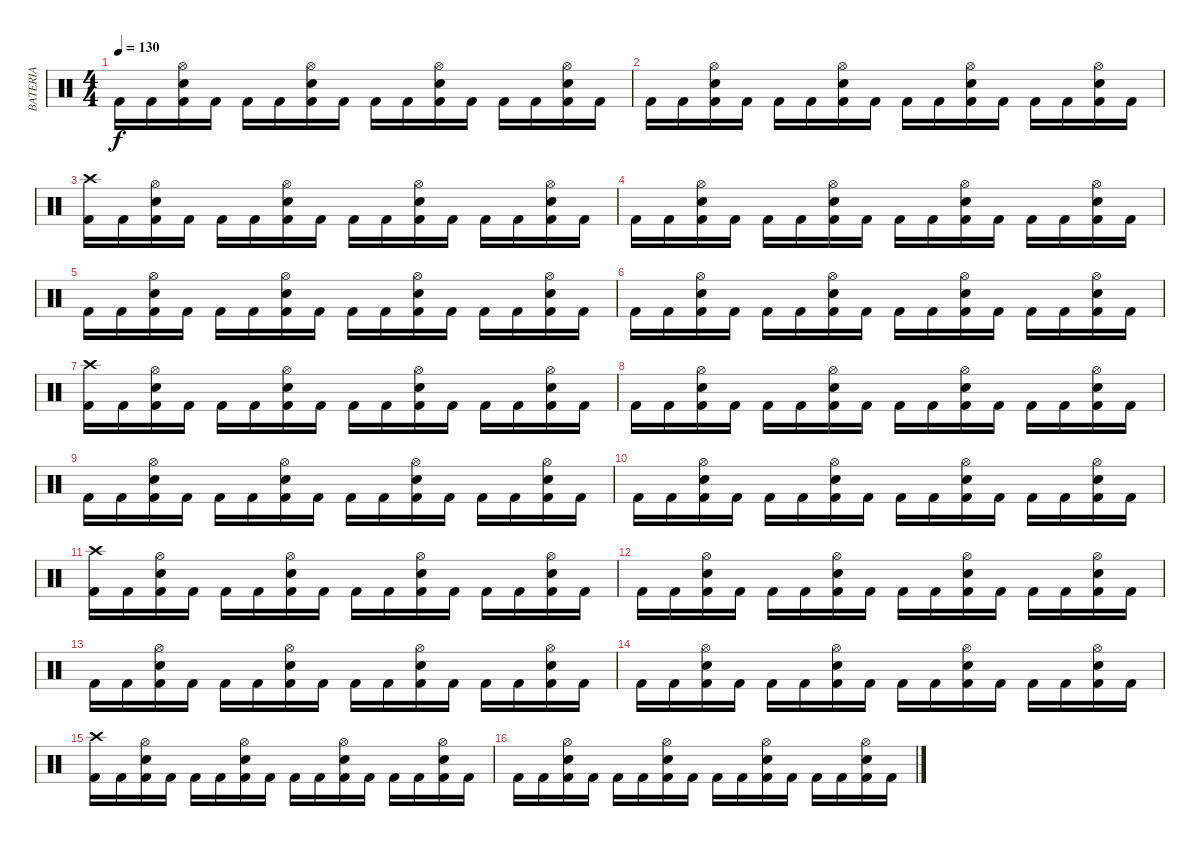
\track ("BATERIA" "BATERIA") {instrument percussion}
\staff {score}
\articulation defaults
\ts (4 4)
\tempo 130
\clef neutral
\ks c "Kick (hit) 2".16{dy f} "Kick (hit) 2".16
("Kick (hit) 2" "Electric Snare (hit)" "Hi-Hat (open)").16 "Kick (hit) 2".16 "Kick (hit) 2".16 "Kick (hit) 2".16 ("Kick (hit) 2" "Electric Snare (hit)" "Hi-Hat (open)").16 "Kick (hit) 2".16 "Kick (hit) 2".16 "Kick (hit) 2".16 ("Kick (hit) 2" "Electric Snare (hit)" "Hi-Hat (open)").16 "Kick (hit) 2".16 "Kick (hit) 2".16 "Kick (hit) 2".16 ("Kick (hit) 2" "Electric Snare (hit)" "Hi-Hat (open)").16 "Kick (hit) 2".16 |
"Kick (hit) 2".16 "Kick (hit) 2".16 ("Kick (hit) 2" "Electric Snare (hit)" "Hi-Hat (open)").16 "Kick (hit) 2".16 "Kick (hit) 2".16 "Kick (hit) 2".16 ("Kick (hit) 2" "Electric Snare (hit)" "Hi-Hat (open)").16 "Kick (hit) 2".16 "Kick (hit) 2".16 "Kick (hit) 2".16 ("Kick (hit) 2" "Electric Snare (hit)" "Hi-Hat (open)").16 "Kick (hit) 2".16 "Kick (hit) 2".16 "Kick (hit) 2".16 ("Kick (hit) 2" "Electric Snare (hit)" "Hi-Hat (open)").16 "Kick (hit) 2".16 |
("Kick (hit) 2" "Crash high (hit)").16 "Kick (hit) 2".16 ("Kick (hit) 2" "Electric Snare (hit)" "Hi-Hat (open)").16 "Kick (hit) 2".16 "Kick (hit) 2".16 "Kick (hit) 2".16 ("Kick (hit) 2" "Electric Snare (hit)" "Hi-Hat (open)").16 "Kick (hit) 2".16 "Kick (hit) 2".16 "Kick (hit) 2".16 ("Kick (hit) 2" "Electric Snare (hit)" "Hi-Hat (open)").16 "Kick (hit) 2".16 "Kick (hit) 2".16 "Kick (hit) 2".16 ("Kick (hit) 2" "Electric Snare (hit)" "Hi-Hat (open)").16 "Kick (hit) 2".16 |
"Kick (hit) 2".16 "Kick (hit) 2".16 ("Kick (hit) 2" "Electric Snare (hit)" "Hi-Hat (open)").16 "Kick (hit) 2".16 "Kick (hit) 2".16 "Kick (hit) 2".16 ("Kick (hit) 2" "Electric Snare (hit)" "Hi-Hat (open)").16 "Kick (hit) 2".16 "Kick (hit) 2".16 "Kick (hit) 2".16 ("Kick (hit) 2" "Electric Snare (hit)" "Hi-Hat (open)").16 "Kick (hit) 2".16 "Kick (hit) 2".16 "Kick (hit) 2".16 ("Kick (hit) 2" "Electric Snare (hit)" "Hi-Hat (open)").16 "Kick (hit) 2".16 |
"Kick (hit) 2".16 "Kick (hit) 2".16 ("Kick (hit) 2" "Electric Snare (hit)" "Hi-Hat (open)").16 "Kick (hit) 2".16 "Kick (hit) 2".16 "Kick (hit) 2".16 ("Kick (hit) 2" "Electric Snare (hit)" "Hi-Hat (open)").16 "Kick (hit) 2".16 "Kick (hit) 2".16 "Kick (hit) 2".16 ("Kick (hit) 2" "Electric Snare (hit)" "Hi-Hat (open)").16 "Kick (hit) 2".16 "Kick (hit) 2".16 "Kick (hit) 2".16 ("Kick (hit) 2" "Electric Snare (hit)" "Hi-Hat (open)").16 "Kick (hit) 2".16 |
"Kick (hit) 2".16 "Kick (hit) 2".16 ("Kick (hit) 2" "Electric Snare (hit)" "Hi-Hat (open)").16 "Kick (hit) 2".16 "Kick (hit) 2".16 "Kick (hit) 2".16 ("Kick (hit) 2" "Electric Snare (hit)" "Hi-Hat (open)").16 "Kick (hit) 2".16 "Kick (hit) 2".16 "Kick (hit) 2".16 ("Kick (hit) 2" "Electric Snare (hit)" "Hi-Hat (open)").16 "Kick (hit) 2".16 "Kick (hit) 2".16 "Kick (hit) 2".16 ("Kick (hit) 2" "Electric Snare (hit)" "Hi-Hat (open)").16 "Kick (hit) 2".16 |
("Kick (hit) 2" "Crash high (hit)").16 "Kick (hit) 2".16 ("Kick (hit) 2" "Electric Snare (hit)" "Hi-Hat (open)").16 "Kick (hit) 2".16 "Kick (hit) 2".16 "Kick (hit) 2".16 ("Kick (hit) 2" "Electric Snare (hit)" "Hi-Hat (open)").16 "Kick (hit) 2".16 "Kick (hit) 2".16 "Kick (hit) 2".16 ("Kick (hit) 2" "Electric Snare (hit)" "Hi-Hat (open)").16 "Kick (hit) 2".16 "Kick (hit) 2".16 "Kick (hit) 2".16 ("Kick (hit) 2" "Electric Snare (hit)" "Hi-Hat (open)").16 "Kick (hit) 2".16 |
"Kick (hit) 2".16 "Kick (hit) 2".16 ("Kick (hit) 2" "Electric Snare (hit)" "Hi-Hat (open)").16 "Kick (hit) 2".16 "Kick (hit) 2".16 "Kick (hit) 2".16 ("Kick (hit) 2" "Electric Snare (hit)" "Hi-Hat (open)").16 "Kick (hit) 2".16 "Kick (hit) 2".16 "Kick (hit) 2".16 ("Kick (hit) 2" "Electric Snare (hit)" "Hi-Hat (open)").16 "Kick (hit) 2".16 "Kick (hit) 2".16 "Kick (hit) 2".16 ("Kick (hit) 2" "Electric Snare (hit)" "Hi-Hat (open)").16 "Kick (hit) 2".16 |
"Kick (hit) 2".16 "Kick (hit) 2".16 ("Kick (hit) 2" "Electric Snare (hit)" "Hi-Hat (open)").16 "Kick (hit) 2".16 "Kick (hit) 2".16 "Kick (hit) 2".16 ("Kick (hit) 2" "Electric Snare (hit)" "Hi-Hat (open)").16 "Kick (hit) 2".16 "Kick (hit) 2".16 "Kick (hit) 2".16 ("Kick (hit) 2" "Electric Snare (hit)" "Hi-Hat (open)").16 "Kick (hit) 2".16 "Kick (hit) 2".16 "Kick (hit) 2".16 ("Kick (hit) 2" "Electric Snare (hit)" "Hi-Hat (open)").16 "Kick (hit) 2".16 |
"Kick (hit) 2".16 "Kick (hit) 2".16 ("Kick (hit) 2" "Electric Snare (hit)" "Hi-Hat (open)").16 "Kick (hit) 2".16 "Kick (hit) 2".16 "Kick (hit) 2".16 ("Kick (hit) 2" "Electric Snare (hit)" "Hi-Hat (open)").16 "Kick (hit) 2".16 "Kick (hit) 2".16 "Kick (hit) 2".16 ("Kick (hit) 2" "Electric Snare (hit)" "Hi-Hat (open)").16 "Kick (hit) 2".16 "Kick (hit) 2".16 "Kick (hit) 2".16 ("Kick (hit) 2" "Electric Snare (hit)" "Hi-Hat (open)").16 "Kick (hit) 2".16 |
("Kick (hit) 2" "Crash high (hit)").16 "Kick (hit) 2".16 ("Kick (hit) 2" "Electric Snare (hit)" "Hi-Hat (open)").16 "Kick (hit) 2".16 "Kick (hit) 2".16 "Kick (hit) 2".16 ("Kick (hit) 2" "Electric Snare (hit)" "Hi-Hat (open)").16 "Kick (hit) 2".16 "Kick (hit) 2".16 "Kick (hit) 2".16 ("Kick (hit) 2" "Electric Snare (hit)" "Hi-Hat (open)").16 "Kick (hit) 2".16 "Kick (hit) 2".16 "Kick (hit) 2".16 ("Kick (hit) 2" "Electric Snare (hit)" "Hi-Hat (open)").16 "Kick (hit) 2".16 |
"Kick (hit) 2".16 "Kick (hit) 2".16 ("Kick (hit) 2" "Electric Snare (hit)" "Hi-Hat (open)").16 "Kick (hit) 2".16 "Kick (hit) 2".16 "Kick (hit) 2".16 ("Kick (hit) 2" "Electric Snare (hit)" "Hi-Hat (open)").16 "Kick (hit) 2".16 "Kick (hit) 2".16 "Kick (hit) 2".16 ("Kick (hit) 2" "Electric Snare (hit)" "Hi-Hat (open)").16 "Kick (hit) 2".16 "Kick (hit) 2".16 "Kick (hit) 2".16 ("Kick (hit) 2" "Electric Snare (hit)" "Hi-Hat (open)").16 "Kick (hit) 2".16 |
"Kick (hit) 2".16 "Kick (hit) 2".16 ("Kick (hit) 2" "Electric Snare (hit)" "Hi-Hat (open)").16 "Kick (hit) 2".16 "Kick (hit) 2".16 "Kick (hit) 2".16 ("Kick (hit) 2" "Electric Snare (hit)" "Hi-Hat (open)").16 "Kick (hit) 2".16 "Kick (hit) 2".16 "Kick (hit) 2".16 ("Kick (hit) 2" "Electric Snare (hit)" "Hi-Hat (open)").16 "Kick (hit) 2".16 "Kick (hit) 2".16 "Kick (hit) 2".16 ("Kick (hit) 2" "Electric Snare (hit)" "Hi-Hat (open)").16 "Kick (hit) 2".16 |
"Kick (hit) 2".16 "Kick (hit) 2".16 ("Kick (hit) 2" "Electric Snare (hit)" "Hi-Hat (open)").16 "Kick (hit) 2".16 "Kick (hit) 2".16 "Kick (hit) 2".16 ("Kick (hit) 2" "Electric Snare (hit)" "Hi-Hat (open)").16 "Kick (hit) 2".16 "Kick (hit) 2".16 "Kick (hit) 2".16 ("Kick (hit) 2" "Electric Snare (hit)" "Hi-Hat (open)").16 "Kick (hit) 2".16 "Kick (hit) 2".16 "Kick (hit) 2".16 ("Kick (hit) 2" "Electric Snare (hit)" "Hi-Hat (open)").16 "Kick (hit) 2".16 |
("Kick (hit) 2" "Crash high (hit)").16 "Kick (hit) 2".16 ("Kick (hit) 2" "Electric Snare (hit)" "Hi-Hat (open)").16 "Kick (hit) 2".16 "Kick (hit) 2".16 "Kick (hit) 2".16 ("Kick (hit) 2" "Electric Snare (hit)" "Hi-Hat (open)").16 "Kick (hit) 2".16 "Kick (hit) 2".16 "Kick (hit) 2".16 ("Kick (hit) 2" "Electric Snare (hit)" "Hi-Hat (open)").16 "Kick (hit) 2".16 "Kick (hit) 2".16 "Kick (hit) 2".16 ("Kick (hit) 2" "Electric Snare (hit)" "Hi-Hat (open)").16 "Kick (hit) 2".16 |
"Kick (hit) 2".16 "Kick (hit) 2".16 ("Kick (hit) 2" "Electric Snare (hit)" "Hi-Hat (open)").16 "Kick (hit) 2".16 "Kick (hit) 2".16 "Kick (hit) 2".16 ("Kick (hit) 2" "Electric Snare (hit)" "Hi-Hat (open)").16 "Kick (hit) 2".16 "Kick (hit) 2".16 "Kick (hit) 2".16 ("Kick (hit) 2" "Electric Snare (hit)" "Hi-Hat (open)").16 "Kick (hit) 2".16 "Kick (hit) 2".16 "Kick (hit) 2".16 ("Kick (hit) 2" "Electric Snare (hit)" "Hi-Hat (open)").16 "Kick (hit) 2".16
